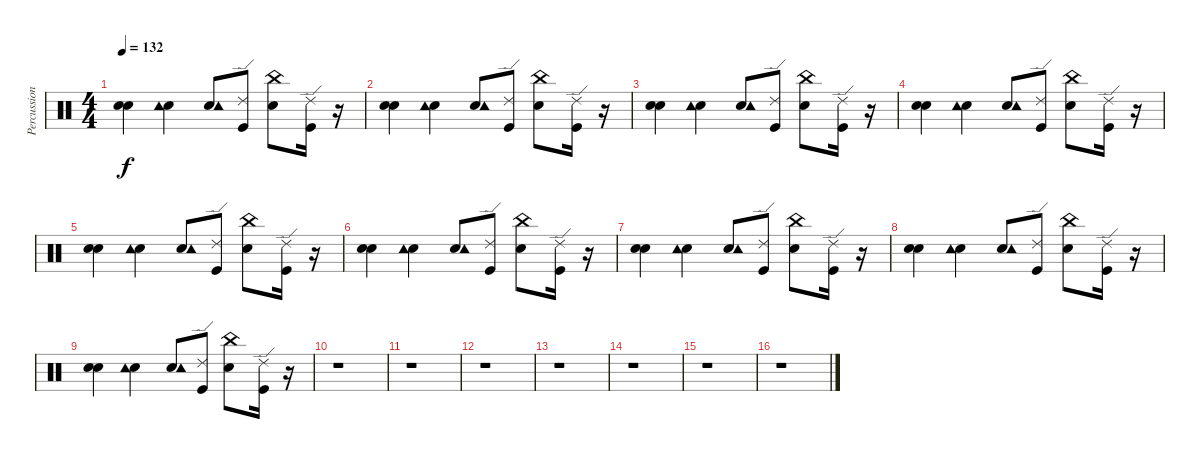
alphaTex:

\track ("Percussions (Reni)" "Percussion") {instrument percussion}
\staff {score}
\articulation defaults
\ts (4 4)
\tempo 132
\clef neutral
\ks c
("Snare (hit) 2" "Electric Snare (hit)").4{dy f} ("Snare (hit) 2" "Tambourine (hit)").4 ("Snare (hit) 2" "Tambourine (hit)").8 ("Kick (hit)" "Ride (edge) 2").8 ("Snare (hit) 2" "China (hit)").8 ("Kick (hit)" "Ride (edge) 2").16 r.16 |
("Snare (hit) 2" "Electric Snare (hit)").4 ("Snare (hit) 2" "Tambourine (hit)").4 ("Snare (hit) 2" "Tambourine (hit)").8 ("Kick (hit)" "Ride (edge) 2").8 ("Snare (hit) 2" "China (hit)").8 ("Kick (hit)" "Ride (edge) 2").16 r.16 |
("Snare (hit) 2" "Electric Snare (hit)").4 ("Snare (hit) 2" "Tambourine (hit)").4 ("Snare (hit) 2" "Tambourine (hit)").8 ("Kick (hit)" "Ride (edge) 2").8 ("Snare (hit) 2" "China (hit)").8 ("Kick (hit)" "Ride (edge) 2").16 r.16 |
("Snare (hit) 2" "Electric Snare (hit)").4 ("Snare (hit) 2" "Tambourine (hit)").4 ("Snare (hit) 2" "Tambourine (hit)").8 ("Kick (hit)" "Ride (edge) 2").8 ("Snare (hit) 2" "China (hit)").8 ("Kick (hit)" "Ride (edge) 2").16 r.16 |
("Snare (hit) 2" "Electric Snare (hit)").4 ("Snare (hit) 2" "Tambourine (hit)").4 ("Snare (hit) 2" "Tambourine (hit)").8 ("Kick (hit)" "Ride (edge) 2").8 ("Snare (hit) 2" "China (hit)").8 ("Kick (hit)" "Ride (edge) 2").16 r.16 |
("Snare (hit) 2" "Electric Snare (hit)").4 ("Snare (hit) 2" "Tambourine (hit)").4 ("Snare (hit) 2" "Tambourine (hit)").8 ("Kick (hit)" "Ride (edge) 2").8 ("Snare (hit) 2" "China (hit)").8 ("Kick (hit)" "Ride (edge) 2").16 r.16 |
("Snare (hit) 2" "Electric Snare (hit)").4 ("Snare (hit) 2" "Tambourine (hit)").4 ("Snare (hit) 2" "Tambourine (hit)").8 ("Kick (hit)" "Ride (edge) 2").8 ("Snare (hit) 2" "China (hit)").8 ("Kick (hit)" "Ride (edge) 2").16 r.16 |
("Snare (hit) 2" "Electric Snare (hit)").4 ("Snare (hit) 2" "Tambourine (hit)").4 ("Snare (hit) 2" "Tambourine (hit)").8 ("Kick (hit)" "Ride (edge) 2").8 ("Snare (hit) 2" "China (hit)").8 ("Kick (hit)" "Ride (edge) 2").16 r.16 |
("Snare (hit) 2" "Electric Snare (hit)").4 ("Snare (hit) 2" "Tambourine (hit)").4 ("Snare (hit) 2" "Tambourine (hit)").8 ("Kick (hit)" "Ride (edge) 2").8 ("Snare (hit) 2" "China (hit)").8 ("Kick (hit)" "Ride (edge) 2").16 r.16 |
r.1 |
r.1 |
r.1 |
r.1 |
r.1 |
r.1 |
r.1
